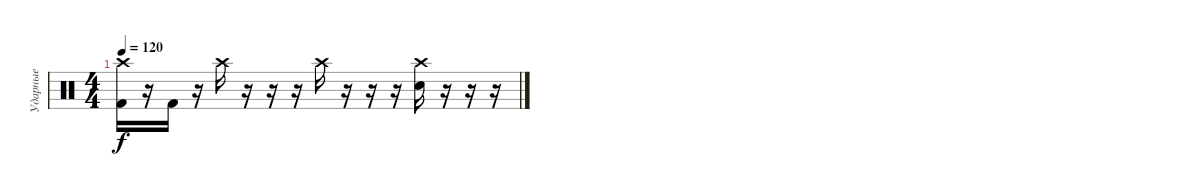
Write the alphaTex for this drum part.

\track ("Ударные" "Ударные") {instrument percussion}
\staff {score}
\articulation defaults
\ts (4 4)
\tempo 120
\clef neutral
\ks c
("Crash high (hit)" "Kick (hit) 2").16{dy f} r.16 "Kick (hit) 2".16 r.16 "Crash high (hit)".16 r.16 r.16 r.16 "Crash high (hit)".16 r.16 r.16 r.16 ("Crash high (hit)" "Electric Snare (hit)").16 r.16 r.16 r.16
